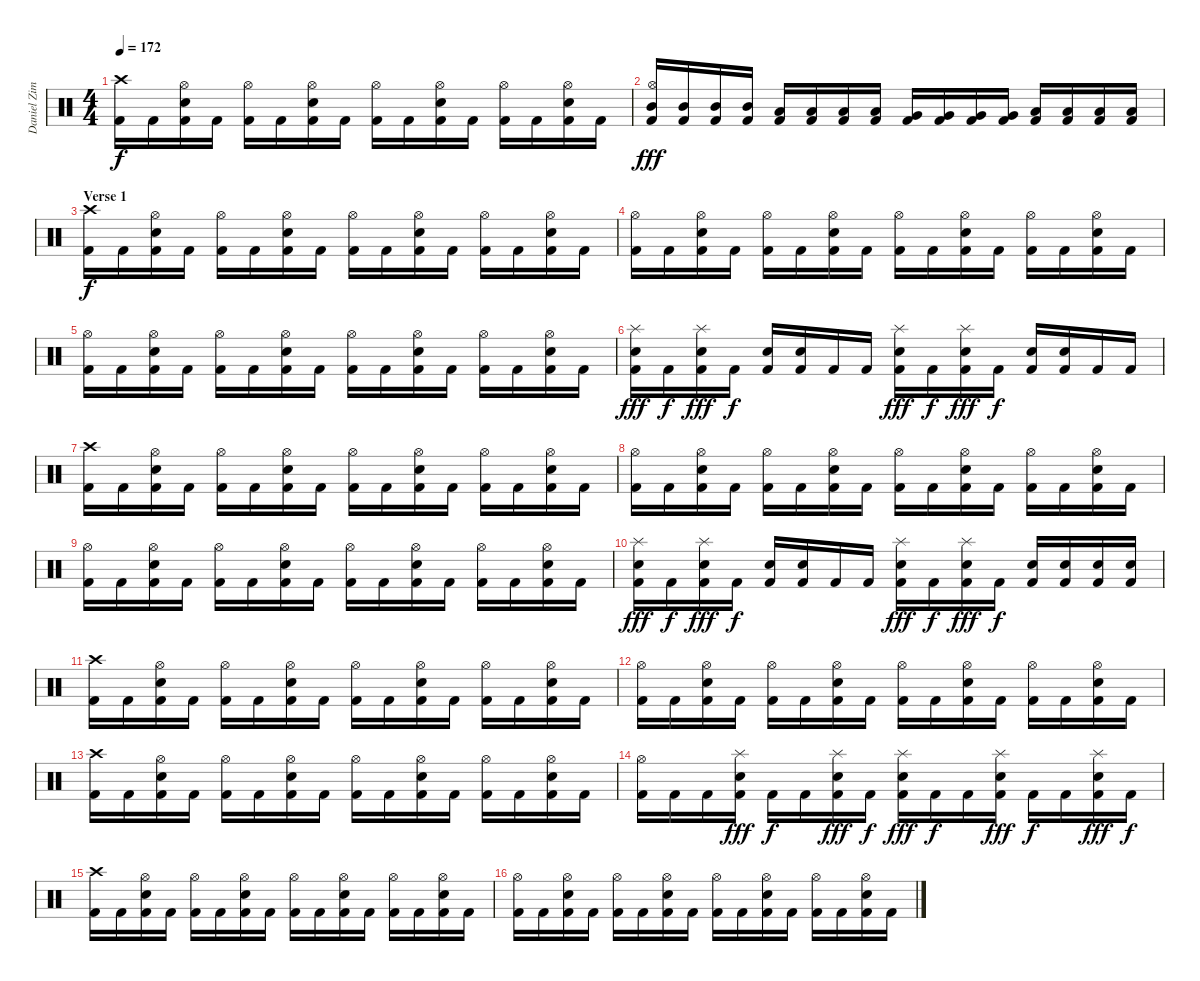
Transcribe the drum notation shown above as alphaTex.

\track ("Daniel Zimmermann - Drums" "Daniel Zim") {instrument percussion}
\staff {score}
\articulation defaults
\ts (4 4)
\tempo 172
\clef neutral
\ks c
("Kick (hit) 2" "Crash high (hit)").16{dy f} "Kick (hit) 2".16 ("Kick (hit) 2" "Electric Snare (hit)" "Hi-Hat (open)").16 "Kick (hit) 2".16 ("Kick (hit) 2" "Hi-Hat (open)").16 "Kick (hit) 2".16 ("Kick (hit) 2" "Electric Snare (hit)" "Hi-Hat (open)").16 "Kick (hit) 2".16 ("Kick (hit) 2" "Hi-Hat (open)").16 "Kick (hit) 2".16 ("Kick (hit) 2" "Electric Snare (hit)" "Hi-Hat (open)").16 "Kick (hit) 2".16 ("Kick (hit) 2" "Hi-Hat (open)").16 "Kick (hit) 2".16 ("Kick (hit) 2" "Electric Snare (hit)" "Hi-Hat (open)").16 "Kick (hit) 2".16 |
("Kick (hit) 2" "Mid Tom (hit)" "Hi-Hat (open)").16{dy fff} ("Kick (hit) 2" "Mid Tom (hit)").16 ("Kick (hit) 2" "Mid Tom (hit)").16 ("Kick (hit) 2" "Mid Tom (hit)").16 ("Kick (hit) 2" "Low Tom (hit)").16 ("Kick (hit) 2" "Low Tom (hit)").16 ("Kick (hit) 2" "Low Tom (hit)").16 ("Kick (hit) 2" "Low Tom (hit)").16 ("Kick (hit) 2" "Very Low Tom (hit)").16 ("Kick (hit) 2" "Very Low Tom (hit)").16 ("Kick (hit) 2" "Very Low Tom (hit)").16 ("Kick (hit) 2" "Very Low Tom (hit)").16 ("Kick (hit) 2" "Low Floor Tom (hit)").16 ("Kick (hit) 2" "Low Floor Tom (hit)").16 ("Kick (hit) 2" "Low Floor Tom (hit)").16 ("Kick (hit) 2" "Low Floor Tom (hit)").16 |
\section ("" "Verse 1")
("Kick (hit) 2" "Crash high (hit)").16{dy f} "Kick (hit) 2".16 ("Kick (hit) 2" "Electric Snare (hit)" "Hi-Hat (open)").16 "Kick (hit) 2".16 ("Kick (hit) 2" "Hi-Hat (open)").16 "Kick (hit) 2".16 ("Kick (hit) 2" "Electric Snare (hit)" "Hi-Hat (open)").16 "Kick (hit) 2".16 ("Kick (hit) 2" "Hi-Hat (open)").16 "Kick (hit) 2".16 ("Kick (hit) 2" "Electric Snare (hit)" "Hi-Hat (open)").16 "Kick (hit) 2".16 ("Kick (hit) 2" "Hi-Hat (open)").16 "Kick (hit) 2".16 ("Kick (hit) 2" "Electric Snare (hit)" "Hi-Hat (open)").16 "Kick (hit) 2".16 |
("Kick (hit) 2" "Hi-Hat (open)").16 "Kick (hit) 2".16 ("Kick (hit) 2" "Electric Snare (hit)" "Hi-Hat (open)").16 "Kick (hit) 2".16 ("Kick (hit) 2" "Hi-Hat (open)").16 "Kick (hit) 2".16 ("Kick (hit) 2" "Electric Snare (hit)" "Hi-Hat (open)").16 "Kick (hit) 2".16 ("Kick (hit) 2" "Hi-Hat (open)").16 "Kick (hit) 2".16 ("Kick (hit) 2" "Electric Snare (hit)" "Hi-Hat (open)").16 "Kick (hit) 2".16 ("Kick (hit) 2" "Hi-Hat (open)").16 "Kick (hit) 2".16 ("Kick (hit) 2" "Electric Snare (hit)" "Hi-Hat (open)").16 "Kick (hit) 2".16 |
("Kick (hit) 2" "Hi-Hat (open)").16 "Kick (hit) 2".16 ("Kick (hit) 2" "Electric Snare (hit)" "Hi-Hat (open)").16 "Kick (hit) 2".16 ("Kick (hit) 2" "Hi-Hat (open)").16 "Kick (hit) 2".16 ("Kick (hit) 2" "Electric Snare (hit)" "Hi-Hat (open)").16 "Kick (hit) 2".16 ("Kick (hit) 2" "Hi-Hat (open)").16 "Kick (hit) 2".16 ("Kick (hit) 2" "Electric Snare (hit)" "Hi-Hat (open)").16 "Kick (hit) 2".16 ("Kick (hit) 2" "Hi-Hat (open)").16 "Kick (hit) 2".16 ("Kick (hit) 2" "Electric Snare (hit)" "Hi-Hat (open)").16 "Kick (hit) 2".16 |
("Kick (hit) 2" "Electric Snare (hit)" "Splash (hit)").16{dy fff} "Kick (hit) 2".16{dy f} ("Kick (hit) 2" "Electric Snare (hit)" "Splash (hit)").16{dy fff} "Kick (hit) 2".16{dy f} ("Kick (hit) 2" "Electric Snare (hit)").16 ("Kick (hit) 2" "Electric Snare (hit)").16 "Kick (hit) 2".16 "Kick (hit) 2".16 ("Kick (hit) 2" "Electric Snare (hit)" "Splash (hit)").16{dy fff} "Kick (hit) 2".16{dy f} ("Kick (hit) 2" "Electric Snare (hit)" "Splash (hit)").16{dy fff} "Kick (hit) 2".16{dy f} ("Kick (hit) 2" "Electric Snare (hit)").16 ("Kick (hit) 2" "Electric Snare (hit)").16 "Kick (hit) 2".16 "Kick (hit) 2".16 |
("Kick (hit) 2" "Crash high (hit)").16 "Kick (hit) 2".16 ("Kick (hit) 2" "Electric Snare (hit)" "Hi-Hat (open)").16 "Kick (hit) 2".16 ("Kick (hit) 2" "Hi-Hat (open)").16 "Kick (hit) 2".16 ("Kick (hit) 2" "Electric Snare (hit)" "Hi-Hat (open)").16 "Kick (hit) 2".16 ("Kick (hit) 2" "Hi-Hat (open)").16 "Kick (hit) 2".16 ("Kick (hit) 2" "Electric Snare (hit)" "Hi-Hat (open)").16 "Kick (hit) 2".16 ("Kick (hit) 2" "Hi-Hat (open)").16 "Kick (hit) 2".16 ("Kick (hit) 2" "Electric Snare (hit)" "Hi-Hat (open)").16 "Kick (hit) 2".16 |
("Kick (hit) 2" "Hi-Hat (open)").16 "Kick (hit) 2".16 ("Kick (hit) 2" "Electric Snare (hit)" "Hi-Hat (open)").16 "Kick (hit) 2".16 ("Kick (hit) 2" "Hi-Hat (open)").16 "Kick (hit) 2".16 ("Kick (hit) 2" "Electric Snare (hit)" "Hi-Hat (open)").16 "Kick (hit) 2".16 ("Kick (hit) 2" "Hi-Hat (open)").16 "Kick (hit) 2".16 ("Kick (hit) 2" "Electric Snare (hit)" "Hi-Hat (open)").16 "Kick (hit) 2".16 ("Kick (hit) 2" "Hi-Hat (open)").16 "Kick (hit) 2".16 ("Kick (hit) 2" "Electric Snare (hit)" "Hi-Hat (open)").16 "Kick (hit) 2".16 |
("Kick (hit) 2" "Hi-Hat (open)").16 "Kick (hit) 2".16 ("Kick (hit) 2" "Electric Snare (hit)" "Hi-Hat (open)").16 "Kick (hit) 2".16 ("Kick (hit) 2" "Hi-Hat (open)").16 "Kick (hit) 2".16 ("Kick (hit) 2" "Electric Snare (hit)" "Hi-Hat (open)").16 "Kick (hit) 2".16 ("Kick (hit) 2" "Hi-Hat (open)").16 "Kick (hit) 2".16 ("Kick (hit) 2" "Electric Snare (hit)" "Hi-Hat (open)").16 "Kick (hit) 2".16 ("Kick (hit) 2" "Hi-Hat (open)").16 "Kick (hit) 2".16 ("Kick (hit) 2" "Electric Snare (hit)" "Hi-Hat (open)").16 "Kick (hit) 2".16 |
("Kick (hit) 2" "Electric Snare (hit)" "Splash (hit)").16{dy fff} "Kick (hit) 2".16{dy f} ("Kick (hit) 2" "Electric Snare (hit)" "Splash (hit)").16{dy fff} "Kick (hit) 2".16{dy f} ("Kick (hit) 2" "Electric Snare (hit)").16 ("Kick (hit) 2" "Electric Snare (hit)").16 "Kick (hit) 2".16 "Kick (hit) 2".16 ("Kick (hit) 2" "Electric Snare (hit)" "Splash (hit)").16{dy fff} "Kick (hit) 2".16{dy f} ("Kick (hit) 2" "Electric Snare (hit)" "Splash (hit)").16{dy fff} "Kick (hit) 2".16{dy f} ("Kick (hit) 2" "Electric Snare (hit)").16 ("Kick (hit) 2" "Electric Snare (hit)").16 ("Kick (hit) 2" "Electric Snare (hit)").16 ("Kick (hit) 2" "Electric Snare (hit)").16 |
("Kick (hit) 2" "Crash high (hit)").16 "Kick (hit) 2".16 ("Kick (hit) 2" "Electric Snare (hit)" "Hi-Hat (open)").16 "Kick (hit) 2".16 ("Kick (hit) 2" "Hi-Hat (open)").16 "Kick (hit) 2".16 ("Kick (hit) 2" "Electric Snare (hit)" "Hi-Hat (open)").16 "Kick (hit) 2".16 ("Kick (hit) 2" "Hi-Hat (open)").16 "Kick (hit) 2".16 ("Kick (hit) 2" "Electric Snare (hit)" "Hi-Hat (open)").16 "Kick (hit) 2".16 ("Kick (hit) 2" "Hi-Hat (open)").16 "Kick (hit) 2".16 ("Kick (hit) 2" "Electric Snare (hit)" "Hi-Hat (open)").16 "Kick (hit) 2".16 |
("Kick (hit) 2" "Hi-Hat (open)").16 "Kick (hit) 2".16 ("Kick (hit) 2" "Electric Snare (hit)" "Hi-Hat (open)").16 "Kick (hit) 2".16 ("Kick (hit) 2" "Hi-Hat (open)").16 "Kick (hit) 2".16 ("Kick (hit) 2" "Electric Snare (hit)" "Hi-Hat (open)").16 "Kick (hit) 2".16 ("Kick (hit) 2" "Hi-Hat (open)").16 "Kick (hit) 2".16 ("Kick (hit) 2" "Electric Snare (hit)" "Hi-Hat (open)").16 "Kick (hit) 2".16 ("Kick (hit) 2" "Hi-Hat (open)").16 "Kick (hit) 2".16 ("Kick (hit) 2" "Electric Snare (hit)" "Hi-Hat (open)").16 "Kick (hit) 2".16 |
("Kick (hit) 2" "Crash high (hit)").16 "Kick (hit) 2".16 ("Kick (hit) 2" "Electric Snare (hit)" "Hi-Hat (open)").16 "Kick (hit) 2".16 ("Kick (hit) 2" "Hi-Hat (open)").16 "Kick (hit) 2".16 ("Kick (hit) 2" "Electric Snare (hit)" "Hi-Hat (open)").16 "Kick (hit) 2".16 ("Kick (hit) 2" "Hi-Hat (open)").16 "Kick (hit) 2".16 ("Kick (hit) 2" "Electric Snare (hit)" "Hi-Hat (open)").16 "Kick (hit) 2".16 ("Kick (hit) 2" "Hi-Hat (open)").16 "Kick (hit) 2".16 ("Kick (hit) 2" "Electric Snare (hit)" "Hi-Hat (open)").16 "Kick (hit) 2".16 |
("Kick (hit) 2" "Hi-Hat (open)").16 "Kick (hit) 2".16 "Kick (hit) 2".16 ("Kick (hit) 2" "Electric Snare (hit)" "Splash (hit)").16{dy fff} "Kick (hit) 2".16{dy f} "Kick (hit) 2".16 ("Kick (hit) 2" "Electric Snare (hit)" "Splash (hit)").16{dy fff} "Kick (hit) 2".16{dy f} ("Kick (hit) 2" "Electric Snare (hit)" "Splash (hit)").16{dy fff} "Kick (hit) 2".16{dy f} "Kick (hit) 2".16 ("Kick (hit) 2" "Electric Snare (hit)" "Splash (hit)").16{dy fff} "Kick (hit) 2".16{dy f} "Kick (hit) 2".16 ("Kick (hit) 2" "Electric Snare (hit)" "Splash (hit)").16{dy fff} "Kick (hit) 2".16{dy f} |
("Kick (hit) 2" "Crash high (hit)").16 "Kick (hit) 2".16 ("Kick (hit) 2" "Electric Snare (hit)" "Hi-Hat (open)").16 "Kick (hit) 2".16 ("Kick (hit) 2" "Hi-Hat (open)").16 "Kick (hit) 2".16 ("Kick (hit) 2" "Electric Snare (hit)" "Hi-Hat (open)").16 "Kick (hit) 2".16 ("Kick (hit) 2" "Hi-Hat (open)").16 "Kick (hit) 2".16 ("Kick (hit) 2" "Electric Snare (hit)" "Hi-Hat (open)").16 "Kick (hit) 2".16 ("Kick (hit) 2" "Hi-Hat (open)").16 "Kick (hit) 2".16 ("Kick (hit) 2" "Electric Snare (hit)" "Hi-Hat (open)").16 "Kick (hit) 2".16 |
("Kick (hit) 2" "Hi-Hat (open)").16 "Kick (hit) 2".16 ("Kick (hit) 2" "Electric Snare (hit)" "Hi-Hat (open)").16 "Kick (hit) 2".16 ("Kick (hit) 2" "Hi-Hat (open)").16 "Kick (hit) 2".16 ("Kick (hit) 2" "Electric Snare (hit)" "Hi-Hat (open)").16 "Kick (hit) 2".16 ("Kick (hit) 2" "Hi-Hat (open)").16 "Kick (hit) 2".16 ("Kick (hit) 2" "Electric Snare (hit)" "Hi-Hat (open)").16 "Kick (hit) 2".16 ("Kick (hit) 2" "Hi-Hat (open)").16 "Kick (hit) 2".16 ("Kick (hit) 2" "Electric Snare (hit)" "Hi-Hat (open)").16 "Kick (hit) 2".16
